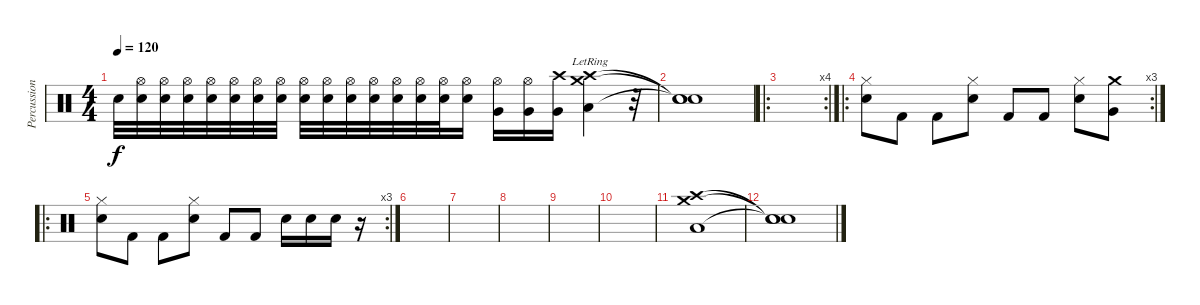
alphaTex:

\track ("Percussion" "Percussion") {instrument percussion}
\staff {score}
\articulation defaults
\ts (4 4)
\tempo 120
\clef neutral
\ks c "Snare (hit) 2".32{dy f}
("Snare (hit) 2" "Hi-Hat (open)").32 ("Snare (hit) 2" "Hi-Hat (open)").32 ("Snare (hit) 2" "Hi-Hat (open)").32 ("Snare (hit) 2" "Hi-Hat (open)").32 ("Snare (hit) 2" "Hi-Hat (open)").32 ("Snare (hit) 2" "Hi-Hat (open)").32 ("Snare (hit) 2" "Hi-Hat (open)").32 ("Snare (hit) 2" "Hi-Hat (open)").32 ("Snare (hit) 2" "Hi-Hat (open)").32 ("Snare (hit) 2" "Hi-Hat (open)").32 ("Snare (hit) 2" "Hi-Hat (open)").32 ("Snare (hit) 2" "Hi-Hat (open)").32 ("Snare (hit) 2" "Hi-Hat (open)").32 ("Electric Snare (hit)" "Hi-Hat (open)").32 ("Snare (hit) 2" "Hi-Hat (open)").16 ("Very Low Tom (hit)" "Hi-Hat (open)").16 ("Very Low Tom (hit)" "Hi-Hat (open)").16 ("Very Low Tom (hit)" "Crash high (hit)").16 ("Low Tom (hit)"{lr} "Crash high (hit)" "Crash medium (hit)").4 r.32 |
("Snare (hit)"{t} "Snare (hit)"{t} "Snare (hit)"{t}).1 |
\ro
\rc 4
|
\ro
\rc 3
("Hi-Hat (closed)" "Snare (hit) 2").8 "Kick (hit) 2".8 "Kick (hit) 2".8 ("Hi-Hat (closed)" "Snare (hit) 2").8 "Kick (hit) 2".8 "Kick (hit) 2".8 ("Hi-Hat (closed)" "Snare (hit) 2").8 ("Crash medium (hit)" "Very Low Tom (hit)").8 |
\ro
\rc 3
("Hi-Hat (closed)" "Snare (hit) 2").8 "Kick (hit) 2".8 "Kick (hit) 2".8 ("Hi-Hat (closed)" "Snare (hit) 2").8 "Kick (hit) 2".8 "Kick (hit) 2".8 "Electric Snare (hit)".16 "Electric Snare (hit)".16 "Electric Snare (hit)".16 r.16 |
|
|
|
|
|
("Low Floor Tom (hit)" "Crash high (hit)" "Crash medium (hit)").1 |
("Snare (hit)"{t} "Snare (hit)"{t} "Snare (hit)"{t}).1
